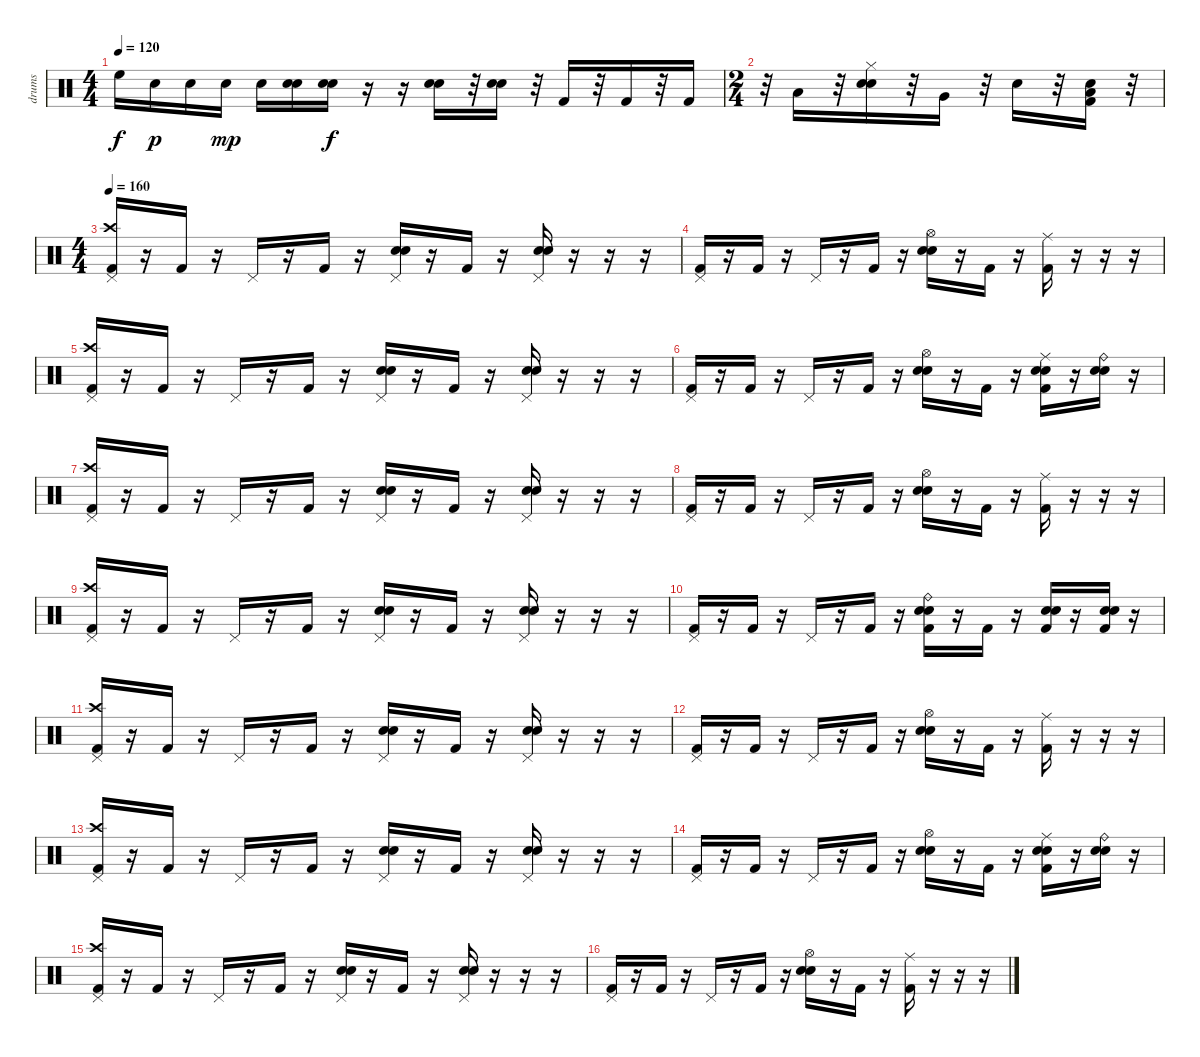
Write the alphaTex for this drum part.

\track ("drums" "drums") {instrument percussion}
\staff {score}
\articulation defaults
\ts (4 4)
\tempo 120
\clef neutral
\ks c "High Floor Tom (hit)".16{dy f} "Electric Snare (hit)".16{dy p} "Electric Snare (hit)".16 "Electric Snare (hit)".16{dy mp} "Electric Snare (hit)".16
("Electric Snare (hit)" "Snare (hit) 2").16{bd 60} ("Electric Snare (hit)" "Snare (hit) 2").16{bd 60 dy f} r.16 r.16 ("Electric Snare (hit)" "Snare (hit) 2").16{bd 60} r.32 ("Electric Snare (hit)" "Snare (hit) 2").16 r.32 "Kick (hit) 2".16 r.32 "Kick (hit) 2".16 r.32 "Kick (hit) 2".16 |
\ts (2 4)
r.32 "Low Tom (hit)".16 r.32 ("Hi-Hat (closed)" "Electric Snare (hit)" "Snare (hit) 2").16{bd 60} r.32 "Very Low Tom (hit)".16 r.32 "Snare (hit) 2".16 r.32 ("Snare (hit) 2" "Low Tom (hit)" "Kick (hit) 2").16 r.32 |
\ts (4 4)
\tempo 160
("Crash high (hit)" "Pedal Hi-Hat (hit)" "Kick (hit) 2").16 r.16 "Kick (hit) 2".16 r.16 "Pedal Hi-Hat (hit)".16 r.16 "Kick (hit) 2".16 r.16 ("Pedal Hi-Hat (hit)" "Electric Snare (hit)" "Snare (hit) 2").16 r.16 "Kick (hit) 2".16 r.16 ("Pedal Hi-Hat (hit)" "Electric Snare (hit)" "Snare (hit) 2").16 r.16 r.16 r.16 |
("Pedal Hi-Hat (hit)" "Kick (hit) 2").16 r.16 "Kick (hit) 2".16 r.16 "Pedal Hi-Hat (hit)".16 r.16 "Kick (hit) 2".16 r.16 ("Hi-Hat (open)" "Electric Snare (hit)" "Snare (hit) 2").16 r.16 "Kick (hit) 2".16 r.16 ("Ride (middle)" "Kick (hit) 2").16 r.16 r.16 r.16 |
("Crash high (hit)" "Pedal Hi-Hat (hit)" "Kick (hit) 2").16 r.16 "Kick (hit) 2".16 r.16 "Pedal Hi-Hat (hit)".16 r.16 "Kick (hit) 2".16 r.16 ("Pedal Hi-Hat (hit)" "Electric Snare (hit)" "Snare (hit) 2").16 r.16 "Kick (hit) 2".16 r.16 ("Pedal Hi-Hat (hit)" "Electric Snare (hit)" "Snare (hit) 2").16 r.16 r.16 r.16 |
("Pedal Hi-Hat (hit)" "Kick (hit) 2").16 r.16 "Kick (hit) 2".16 r.16 "Pedal Hi-Hat (hit)".16 r.16 "Kick (hit) 2".16 r.16 ("Hi-Hat (open)" "Electric Snare (hit)" "Snare (hit) 2").16 r.16 "Kick (hit) 2".16 r.16 ("Ride (middle)" "Electric Snare (hit)" "Snare (hit) 2" "Kick (hit) 2").16 r.16 ("Ride (bell)" "Electric Snare (hit)" "Snare (hit) 2").16 r.16 |
("Crash high (hit)" "Pedal Hi-Hat (hit)" "Kick (hit) 2").16 r.16 "Kick (hit) 2".16 r.16 "Pedal Hi-Hat (hit)".16 r.16 "Kick (hit) 2".16 r.16 ("Pedal Hi-Hat (hit)" "Electric Snare (hit)" "Snare (hit) 2").16 r.16 "Kick (hit) 2".16 r.16 ("Pedal Hi-Hat (hit)" "Electric Snare (hit)" "Snare (hit) 2").16 r.16 r.16 r.16 |
("Pedal Hi-Hat (hit)" "Kick (hit) 2").16 r.16 "Kick (hit) 2".16 r.16 "Pedal Hi-Hat (hit)".16 r.16 "Kick (hit) 2".16 r.16 ("Hi-Hat (open)" "Electric Snare (hit)" "Snare (hit) 2").16 r.16 "Kick (hit) 2".16 r.16 ("Ride (middle)" "Kick (hit) 2").16 r.16 r.16 r.16 |
("Crash high (hit)" "Pedal Hi-Hat (hit)" "Kick (hit) 2").16 r.16 "Kick (hit) 2".16 r.16 "Pedal Hi-Hat (hit)".16 r.16 "Kick (hit) 2".16 r.16 ("Pedal Hi-Hat (hit)" "Electric Snare (hit)" "Snare (hit) 2").16 r.16 "Kick (hit) 2".16 r.16 ("Pedal Hi-Hat (hit)" "Electric Snare (hit)" "Snare (hit) 2").16 r.16 r.16 r.16 |
("Pedal Hi-Hat (hit)" "Kick (hit) 2").16 r.16 "Kick (hit) 2".16 r.16 "Pedal Hi-Hat (hit)".16 r.16 "Kick (hit) 2".16 r.16 ("Ride (bell)" "Electric Snare (hit)" "Snare (hit) 2" "Kick (hit) 2").16 r.16 "Kick (hit) 2".16 r.16 ("Electric Snare (hit)" "Snare (hit) 2" "Kick (hit) 2").16 r.16 ("Electric Snare (hit)" "Snare (hit) 2" "Kick (hit) 2").16 r.16 |
("Crash high (hit)" "Pedal Hi-Hat (hit)" "Kick (hit) 2").16 r.16 "Kick (hit) 2".16 r.16 "Pedal Hi-Hat (hit)".16 r.16 "Kick (hit) 2".16 r.16 ("Pedal Hi-Hat (hit)" "Electric Snare (hit)" "Snare (hit) 2").16 r.16 "Kick (hit) 2".16 r.16 ("Pedal Hi-Hat (hit)" "Electric Snare (hit)" "Snare (hit) 2").16 r.16 r.16 r.16 |
("Pedal Hi-Hat (hit)" "Kick (hit) 2").16 r.16 "Kick (hit) 2".16 r.16 "Pedal Hi-Hat (hit)".16 r.16 "Kick (hit) 2".16 r.16 ("Hi-Hat (open)" "Electric Snare (hit)" "Snare (hit) 2").16 r.16 "Kick (hit) 2".16 r.16 ("Ride (middle)" "Kick (hit) 2").16 r.16 r.16 r.16 |
("Crash high (hit)" "Pedal Hi-Hat (hit)" "Kick (hit) 2").16 r.16 "Kick (hit) 2".16 r.16 "Pedal Hi-Hat (hit)".16 r.16 "Kick (hit) 2".16 r.16 ("Pedal Hi-Hat (hit)" "Electric Snare (hit)" "Snare (hit) 2").16 r.16 "Kick (hit) 2".16 r.16 ("Pedal Hi-Hat (hit)" "Electric Snare (hit)" "Snare (hit) 2").16 r.16 r.16 r.16 |
("Pedal Hi-Hat (hit)" "Kick (hit) 2").16 r.16 "Kick (hit) 2".16 r.16 "Pedal Hi-Hat (hit)".16 r.16 "Kick (hit) 2".16 r.16 ("Hi-Hat (open)" "Electric Snare (hit)" "Snare (hit) 2").16 r.16 "Kick (hit) 2".16 r.16 ("Ride (middle)" "Electric Snare (hit)" "Snare (hit) 2" "Kick (hit) 2").16 r.16 ("Ride (bell)" "Electric Snare (hit)" "Snare (hit) 2").16 r.16 |
("Crash high (hit)" "Pedal Hi-Hat (hit)" "Kick (hit) 2").16 r.16 "Kick (hit) 2".16 r.16 "Pedal Hi-Hat (hit)".16 r.16 "Kick (hit) 2".16 r.16 ("Pedal Hi-Hat (hit)" "Electric Snare (hit)" "Snare (hit) 2").16 r.16 "Kick (hit) 2".16 r.16 ("Pedal Hi-Hat (hit)" "Electric Snare (hit)" "Snare (hit) 2").16 r.16 r.16 r.16 |
("Pedal Hi-Hat (hit)" "Kick (hit) 2").16 r.16 "Kick (hit) 2".16 r.16 "Pedal Hi-Hat (hit)".16 r.16 "Kick (hit) 2".16 r.16 ("Hi-Hat (open)" "Electric Snare (hit)" "Snare (hit) 2").16 r.16 "Kick (hit) 2".16 r.16 ("Ride (middle)" "Kick (hit) 2").16 r.16 r.16 r.16
